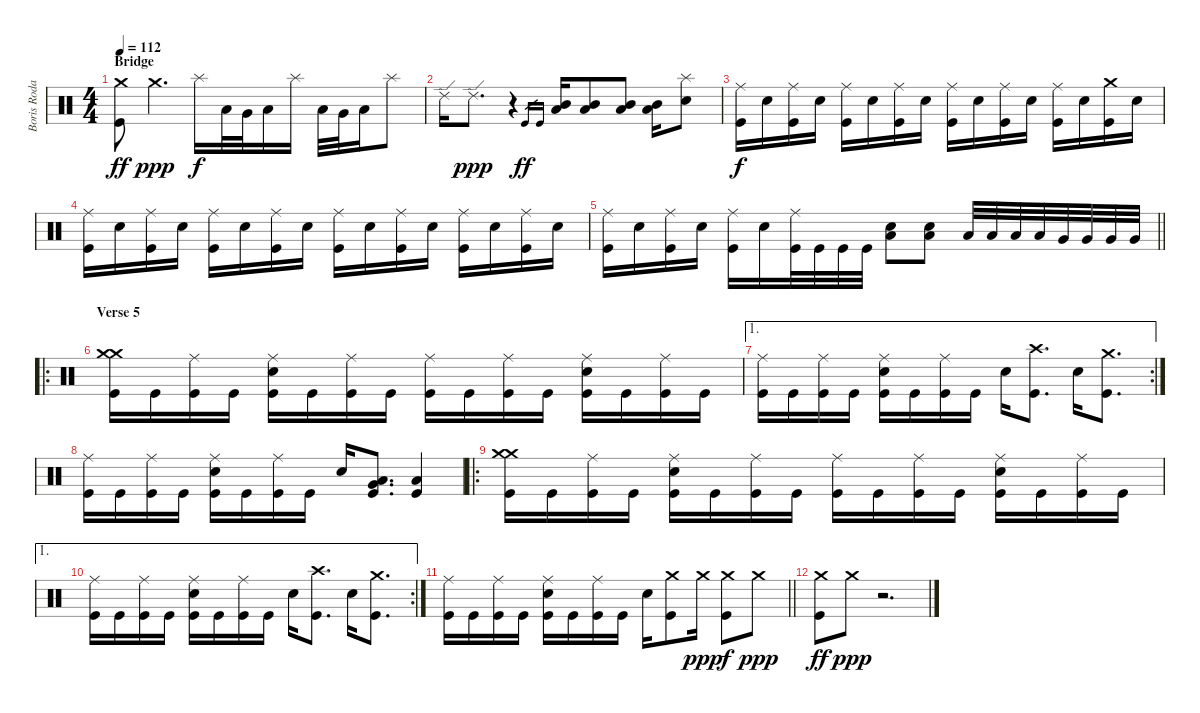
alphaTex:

\track ("Boris Rodas" "Boris Roda") {instrument percussion}
\staff {score}
\articulation defaults
\ts (4 4)
\section ("" "Bridge")
\tempo 112
\clef neutral
\ks c
("Crash medium (hit)" "Kick (hit)").8{dy ff} "Crash medium (hit)".4{d dy ppp} "Splash (hit)".16{dy f} "Low Floor Tom (hit)".32 "Very Low Tom (hit)".32 "Low Floor Tom (hit)".16 "Splash (hit)".16 "Low Floor Tom (hit)".32 "Very Low Tom (hit)".32 "Low Floor Tom (hit)".16 "Splash (hit)".8 |
"Ride (edge) 2".16 "Ride (edge) 2".8{d dy ppp} r.4 "Kick (hit)".16{gr dy ff} "Kick (hit)".16{gr} ("Low Tom (hit)" "Mid Tom (hit)").16 ("Low Tom (hit)" "Mid Tom (hit)").8 ("Low Tom (hit)" "Mid Tom (hit)").8 ("Low Tom (hit)" "Mid Tom (hit)").16 ("Splash (hit)" "Electric Snare (hit)").8 |
("Ride (middle)" "Kick (hit)").16{dy f} "Electric Snare (hit)".16 ("Ride (middle)" "Kick (hit)").16 "Electric Snare (hit)".16 ("Ride (middle)" "Kick (hit)").16 "Electric Snare (hit)".16 ("Ride (middle)" "Kick (hit)").16 "Electric Snare (hit)".16 ("Ride (middle)" "Kick (hit)").16 "Electric Snare (hit)".16 ("Ride (middle)" "Kick (hit)").16 "Electric Snare (hit)".16 ("Ride (middle)" "Kick (hit)").16 "Electric Snare (hit)".16 ("Crash medium (hit)" "Kick (hit)").16 "Electric Snare (hit)".16 |
("Ride (middle)" "Kick (hit)").16 "Electric Snare (hit)".16 ("Ride (middle)" "Kick (hit)").16 "Electric Snare (hit)".16 ("Ride (middle)" "Kick (hit)").16 "Electric Snare (hit)".16 ("Ride (middle)" "Kick (hit)").16 "Electric Snare (hit)".16 ("Ride (middle)" "Kick (hit)").16 "Electric Snare (hit)".16 ("Ride (middle)" "Kick (hit)").16 "Electric Snare (hit)".16 ("Ride (middle)" "Kick (hit)").16 "Electric Snare (hit)".16 ("Ride (middle)" "Kick (hit)").16 "Electric Snare (hit)".16 |
\barLineRight lightlight
("Ride (middle)" "Kick (hit)").16 "Electric Snare (hit)".16 ("Ride (middle)" "Kick (hit)").16 "Electric Snare (hit)".16 ("Ride (middle)" "Kick (hit)").16 "Electric Snare (hit)".16 ("Ride (middle)" "Kick (hit)").32 "Kick (hit)".32 "Kick (hit)".32 "Kick (hit)".32 ("Low Floor Tom (hit)" "Electric Snare (hit)").8 ("Low Floor Tom (hit)" "Electric Snare (hit)").8 "Low Tom (hit)".32 "Low Tom (hit)".32 "Low Tom (hit)".32 "Low Tom (hit)".32 "Very Low Tom (hit)".32 "Very Low Tom (hit)".32 "Very Low Tom (hit)".32 "Very Low Tom (hit)".32 |
\ro
\section ("" "Verse 5")
("Crash medium (hit)" "Crash medium (hit)" "Kick (hit)").16 "Kick (hit)".16 ("Ride (middle)" "Kick (hit)").16 "Kick (hit)".16 ("Ride (middle)" "Electric Snare (hit)" "Kick (hit)").16 "Kick (hit)".16 ("Ride (middle)" "Kick (hit)").16 "Kick (hit)".16 ("Ride (middle)" "Kick (hit)").16 "Kick (hit)".16 ("Ride (middle)" "Kick (hit)").16 "Kick (hit)".16 ("Ride (middle)" "Electric Snare (hit)" "Kick (hit)").16 "Kick (hit)".16 ("Ride (middle)" "Kick (hit)").16 "Kick (hit)".16 |
\ae 1
\rc 2
("Ride (middle)" "Kick (hit)").16 "Kick (hit)".16 ("Ride (middle)" "Kick (hit)").16 "Kick (hit)".16 ("Ride (middle)" "Electric Snare (hit)" "Kick (hit)").16 "Kick (hit)".16 ("Ride (middle)" "Kick (hit)").16 "Kick (hit)".16 "Electric Snare (hit)".16 ("Crash high (hit)" "Kick (hit)").8{d} "Electric Snare (hit)".16 ("Crash medium (hit)" "Kick (hit)").8{d} |
("Ride (middle)" "Kick (hit)").16 "Kick (hit)".16 ("Ride (middle)" "Kick (hit)").16 "Kick (hit)".16 ("Ride (middle)" "Electric Snare (hit)" "Kick (hit)").16 "Kick (hit)".16 ("Ride (middle)" "Kick (hit)").16 "Kick (hit)".16 "Electric Snare (hit)".16 ("Low Floor Tom (hit)" "Very Low Tom (hit)" "Kick (hit)").8{d} ("Low Floor Tom (hit)" "Kick (hit)").4 |
\ro
("Crash medium (hit)" "Crash medium (hit)" "Kick (hit)").16 "Kick (hit)".16 ("Ride (middle)" "Kick (hit)").16 "Kick (hit)".16 ("Ride (middle)" "Electric Snare (hit)" "Kick (hit)").16 "Kick (hit)".16 ("Ride (middle)" "Kick (hit)").16 "Kick (hit)".16 ("Ride (middle)" "Kick (hit)").16 "Kick (hit)".16 ("Ride (middle)" "Kick (hit)").16 "Kick (hit)".16 ("Ride (middle)" "Electric Snare (hit)" "Kick (hit)").16 "Kick (hit)".16 ("Ride (middle)" "Kick (hit)").16 "Kick (hit)".16 |
\ae 1
\rc 2
("Ride (middle)" "Kick (hit)").16 "Kick (hit)".16 ("Ride (middle)" "Kick (hit)").16 "Kick (hit)".16 ("Ride (middle)" "Electric Snare (hit)" "Kick (hit)").16 "Kick (hit)".16 ("Ride (middle)" "Kick (hit)").16 "Kick (hit)".16 "Electric Snare (hit)".16 ("Crash high (hit)" "Kick (hit)").8{d} "Electric Snare (hit)".16 ("Crash medium (hit)" "Kick (hit)").8{d} |
\barLineRight lightlight
("Ride (middle)" "Kick (hit)").16 "Kick (hit)".16 ("Ride (middle)" "Kick (hit)").16 "Kick (hit)".16 ("Ride (middle)" "Electric Snare (hit)" "Kick (hit)").16 "Kick (hit)".16 ("Ride (middle)" "Kick (hit)").16 "Kick (hit)".16 "Electric Snare (hit)".16 ("Crash medium (hit)" "Kick (hit)").8 "Crash medium (hit)".16{dy ppp} ("Crash medium (hit)" "Kick (hit)").8{dy f} "Crash medium (hit)".8{dy ppp} |
("Crash medium (hit)" "Kick (hit)").8{dy ff} "Crash medium (hit)".8{dy ppp} r.2{d}
